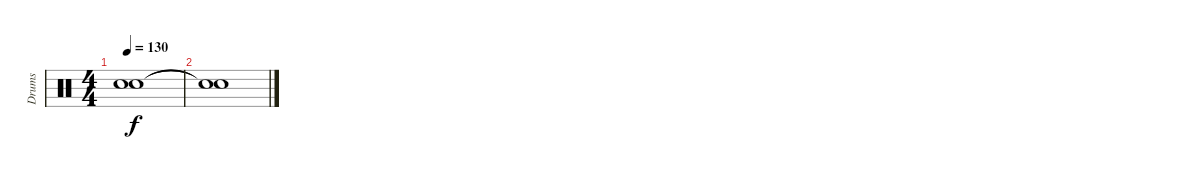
\track ("Drums" "Drums") {instrument percussion}
\staff {score}
\articulation defaults
\ts (4 4)
\tempo 130
\clef neutral
\ks c
("Snare (hit)"{t} "Snare (hit)"{t}).1{dy f} |
("Snare (hit)"{t} "Snare (hit)"{t}).1
